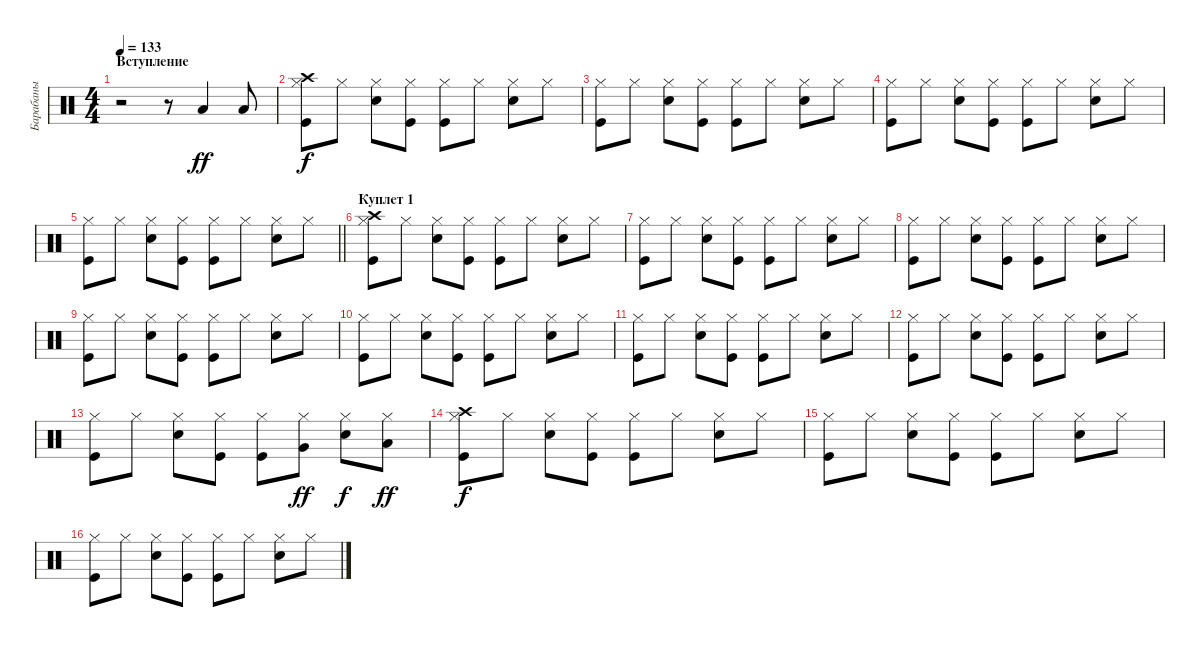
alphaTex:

\track ("Барабаны" "Барабаны") {instrument percussion}
\staff {score}
\articulation defaults
\ts (4 4)
\section ("" "Вступление")
\tempo 133
\clef neutral
\ks c
r.2{dy ff} r.8 "Low Tom (hit)".4 "Low Tom (hit)".8 |
("Kick (hit)" "Hi-Hat (closed)" "Crash high (hit)").8{dy f} "Hi-Hat (closed)".8 ("Snare (hit) 2" "Hi-Hat (closed)").8 ("Kick (hit)" "Hi-Hat (closed)").8 ("Kick (hit)" "Hi-Hat (closed)").8 "Hi-Hat (closed)".8 ("Snare (hit) 2" "Hi-Hat (closed)").8 "Hi-Hat (closed)".8 |
("Kick (hit)" "Hi-Hat (closed)").8 "Hi-Hat (closed)".8 ("Snare (hit) 2" "Hi-Hat (closed)").8 ("Kick (hit)" "Hi-Hat (closed)").8 ("Kick (hit)" "Hi-Hat (closed)").8 "Hi-Hat (closed)".8 ("Snare (hit) 2" "Hi-Hat (closed)").8 "Hi-Hat (closed)".8 |
("Kick (hit)" "Hi-Hat (closed)").8 "Hi-Hat (closed)".8 ("Snare (hit) 2" "Hi-Hat (closed)").8 ("Kick (hit)" "Hi-Hat (closed)").8 ("Kick (hit)" "Hi-Hat (closed)").8 "Hi-Hat (closed)".8 ("Snare (hit) 2" "Hi-Hat (closed)").8 "Hi-Hat (closed)".8 |
\barLineRight lightlight
("Kick (hit)" "Hi-Hat (closed)").8 "Hi-Hat (closed)".8 ("Snare (hit) 2" "Hi-Hat (closed)").8 ("Kick (hit)" "Hi-Hat (closed)").8 ("Kick (hit)" "Hi-Hat (closed)").8 "Hi-Hat (closed)".8 ("Snare (hit) 2" "Hi-Hat (closed)").8 "Hi-Hat (closed)".8 |
\section ("" "Куплет 1")
("Kick (hit)" "Hi-Hat (closed)" "Crash high (hit)").8 "Hi-Hat (closed)".8 ("Snare (hit) 2" "Hi-Hat (closed)").8 ("Kick (hit)" "Hi-Hat (closed)").8 ("Kick (hit)" "Hi-Hat (closed)").8 "Hi-Hat (closed)".8 ("Snare (hit) 2" "Hi-Hat (closed)").8 "Hi-Hat (closed)".8 |
("Kick (hit)" "Hi-Hat (closed)").8 "Hi-Hat (closed)".8 ("Snare (hit) 2" "Hi-Hat (closed)").8 ("Kick (hit)" "Hi-Hat (closed)").8 ("Kick (hit)" "Hi-Hat (closed)").8 "Hi-Hat (closed)".8 ("Snare (hit) 2" "Hi-Hat (closed)").8 "Hi-Hat (closed)".8 |
("Kick (hit)" "Hi-Hat (closed)").8 "Hi-Hat (closed)".8 ("Snare (hit) 2" "Hi-Hat (closed)").8 ("Kick (hit)" "Hi-Hat (closed)").8 ("Kick (hit)" "Hi-Hat (closed)").8 "Hi-Hat (closed)".8 ("Snare (hit) 2" "Hi-Hat (closed)").8 "Hi-Hat (closed)".8 |
("Kick (hit)" "Hi-Hat (closed)").8 "Hi-Hat (closed)".8 ("Snare (hit) 2" "Hi-Hat (closed)").8 ("Kick (hit)" "Hi-Hat (closed)").8 ("Kick (hit)" "Hi-Hat (closed)").8 "Hi-Hat (closed)".8 ("Snare (hit) 2" "Hi-Hat (closed)").8 "Hi-Hat (closed)".8 |
("Kick (hit)" "Hi-Hat (closed)").8 "Hi-Hat (closed)".8 ("Snare (hit) 2" "Hi-Hat (closed)").8 ("Kick (hit)" "Hi-Hat (closed)").8 ("Kick (hit)" "Hi-Hat (closed)").8 "Hi-Hat (closed)".8 ("Snare (hit) 2" "Hi-Hat (closed)").8 "Hi-Hat (closed)".8 |
("Kick (hit)" "Hi-Hat (closed)").8 "Hi-Hat (closed)".8 ("Snare (hit) 2" "Hi-Hat (closed)").8 ("Kick (hit)" "Hi-Hat (closed)").8 ("Kick (hit)" "Hi-Hat (closed)").8 "Hi-Hat (closed)".8 ("Snare (hit) 2" "Hi-Hat (closed)").8 "Hi-Hat (closed)".8 |
("Kick (hit)" "Hi-Hat (closed)").8 "Hi-Hat (closed)".8 ("Snare (hit) 2" "Hi-Hat (closed)").8 ("Kick (hit)" "Hi-Hat (closed)").8 ("Kick (hit)" "Hi-Hat (closed)").8 "Hi-Hat (closed)".8 ("Snare (hit) 2" "Hi-Hat (closed)").8 "Hi-Hat (closed)".8 |
("Kick (hit)" "Hi-Hat (closed)").8 "Hi-Hat (closed)".8 ("Snare (hit) 2" "Hi-Hat (closed)").8 ("Kick (hit)" "Hi-Hat (closed)").8 ("Kick (hit)" "Hi-Hat (closed)").8 ("Hi-Hat (closed)" "Very Low Tom (hit)").8{dy ff} ("Snare (hit) 2" "Hi-Hat (closed)").8{dy f} ("Hi-Hat (closed)" "Low Tom (hit)").8{dy ff} |
("Kick (hit)" "Hi-Hat (closed)" "Crash high (hit)").8{dy f} "Hi-Hat (closed)".8 ("Snare (hit) 2" "Hi-Hat (closed)").8 ("Kick (hit)" "Hi-Hat (closed)").8 ("Kick (hit)" "Hi-Hat (closed)").8 "Hi-Hat (closed)".8 ("Snare (hit) 2" "Hi-Hat (closed)").8 "Hi-Hat (closed)".8 |
("Kick (hit)" "Hi-Hat (closed)").8 "Hi-Hat (closed)".8 ("Snare (hit) 2" "Hi-Hat (closed)").8 ("Kick (hit)" "Hi-Hat (closed)").8 ("Kick (hit)" "Hi-Hat (closed)").8 "Hi-Hat (closed)".8 ("Snare (hit) 2" "Hi-Hat (closed)").8 "Hi-Hat (closed)".8 |
("Kick (hit)" "Hi-Hat (closed)").8 "Hi-Hat (closed)".8 ("Snare (hit) 2" "Hi-Hat (closed)").8 ("Kick (hit)" "Hi-Hat (closed)").8 ("Kick (hit)" "Hi-Hat (closed)").8 "Hi-Hat (closed)".8 ("Snare (hit) 2" "Hi-Hat (closed)").8 "Hi-Hat (closed)".8
